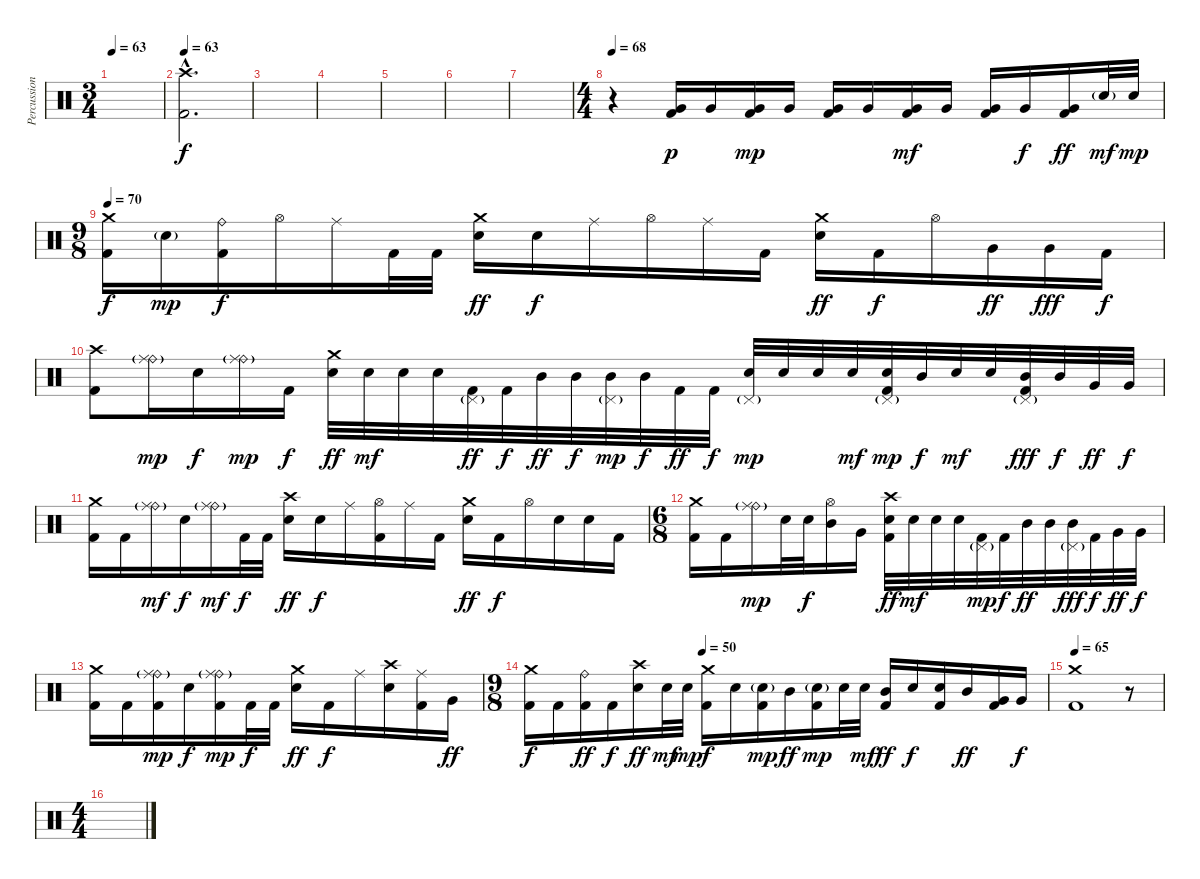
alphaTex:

\track ("Percussion" "Percussion") {instrument percussion}
\staff {score}
\articulation defaults
\ts (3 4)
\tempo 63
\clef neutral
\ks c
|
\tempo 63
("Crash high (hit)"{hac} "Kick (hit) 2"{hac}).2{d} |
|
|
|
|
|
\ts (4 4)
\tempo 68
r.4 ("Very Low Tom (hit)" "Kick (hit) 2").16{dy p volume 14} "Very Low Tom (hit)".16 ("Very Low Tom (hit)" "Kick (hit) 2").16{dy mp} "Very Low Tom (hit)".16 ("Very Low Tom (hit)" "Kick (hit) 2").16 "Very Low Tom (hit)".16 ("Very Low Tom (hit)" "Kick (hit) 2").16{dy mf} "Very Low Tom (hit)".16 ("Very Low Tom (hit)" "Kick (hit) 2").16 "Very Low Tom (hit)".16{dy f} ("Very Low Tom (hit)" "Kick (hit) 2").16{dy ff} "Electric Snare (hit)"{g}.32{dy mf} "Electric Snare (hit)".32{dy mp} |
\ts (9 8)
\tempo 70
("Crash medium (hit)" "Kick (hit) 2").16{dy f volume 14} "Electric Snare (hit)"{g}.16{dy mp} ("Ride (bell)" "Kick (hit) 2").16{dy f} "Hi-Hat (open)".16 "Ride (middle)".16 "Kick (hit) 2".32 "Kick (hit) 2".32 ("Crash medium (hit)" "Electric Snare (hit)").16{dy ff} "Electric Snare (hit)".16{dy f} "Ride (middle)".16 "Hi-Hat (open)".16 "Ride (middle)".16 "Kick (hit) 2".16 ("Crash medium (hit)" "Electric Snare (hit)").16{dy ff} "Kick (hit) 2".16{dy f} "Hi-Hat (open)".16 "Very Low Tom (hit)".16{dy ff} "Very Low Tom (hit)".16{dy fff} "Kick (hit) 2".16{dy f} |
("Crash high (hit)" "Kick (hit) 2").8{volume 14} ("Ride (bell)"{g} "Ride (middle)").16{dy mp} "Electric Snare (hit)".16{dy f} ("Ride (bell)"{g} "Ride (middle)").16{dy mp} "Kick (hit) 2".16{dy f} ("Crash medium (hit)" "Electric Snare (hit)").32{dy ff} "Electric Snare (hit)".32{dy mf} "Electric Snare (hit)".32 "Electric Snare (hit)".32 ("Pedal Hi-Hat (hit)"{g} "Kick (hit) 2").32{dy ff} "Kick (hit) 2".32{dy f} "Mid Tom (hit)".32{dy ff} "Mid Tom (hit)".32{dy f} ("Pedal Hi-Hat (hit)"{g} "Mid Tom (hit)").32{dy mp} "Mid Tom (hit)".32{dy f} "Kick (hit) 2".32{dy ff} "Kick (hit) 2".32{dy f} ("Pedal Hi-Hat (hit)"{g} "Electric Snare (hit)").32{dy mp} "Electric Snare (hit)".32 "Electric Snare (hit)".32 "Electric Snare (hit)".32{dy mf} ("Pedal Hi-Hat (hit)"{g} "Electric Snare (hit)" "Kick (hit) 2").32{dy mp} "Mid Tom (hit)".32{dy f} "Electric Snare (hit)".32{dy mf} "Electric Snare (hit)".32 ("Pedal Hi-Hat (hit)"{g} "Mid Tom (hit)" "Kick (hit) 2").32{dy fff} "Mid Tom (hit)".32{dy f} "Very Low Tom (hit)".32{dy ff} "Very Low Tom (hit)".32{dy f} |
("Crash medium (hit)" "Kick (hit) 2").16{volume 14} "Kick (hit) 2".16 ("Ride (bell)"{g} "Ride (middle)").16{dy mf} "Electric Snare (hit)".16{dy f} ("Ride (bell)"{g} "Ride (middle)").16{dy mf} "Kick (hit) 2".32{dy f} "Kick (hit) 2".32 ("Crash high (hit)" "Electric Snare (hit)").16{dy ff} "Electric Snare (hit)".16{dy f} "Ride (middle)".16 ("Hi-Hat (open)" "Kick (hit) 2").16 "Ride (middle)".16 "Kick (hit) 2".16 ("Crash medium (hit)" "Electric Snare (hit)").16{dy ff} "Kick (hit) 2".16{dy f} "Hi-Hat (open)".16 "Electric Snare (hit)".16 "Electric Snare (hit)".16 "Kick (hit) 2".16 |
\ts (6 8)
("Crash medium (hit)" "Kick (hit) 2").16{volume 14} "Kick (hit) 2".16 ("Ride (bell)"{g} "Ride (middle)").16{dy mp} "Electric Snare (hit)".32 "Electric Snare (hit)".32{dy f} ("Hi-Hat (open)" "Mid Tom (hit)").16 "Very Low Tom (hit)".16 ("Crash high (hit)" "Electric Snare (hit)" "Kick (hit) 2").32{dy ff} "Electric Snare (hit)".32{dy mf} "Electric Snare (hit)".32 "Electric Snare (hit)".32 ("Pedal Hi-Hat (hit)"{g} "Kick (hit) 2").32{dy mp} "Kick (hit) 2".32{dy f} "Mid Tom (hit)".32{dy ff} "Mid Tom (hit)".32 ("Pedal Hi-Hat (hit)"{g} "Mid Tom (hit)").32{dy fff} "Kick (hit) 2".32{dy f} "Very Low Tom (hit)".32{dy ff} "Very Low Tom (hit)".32{dy f} |
("Crash medium (hit)" "Kick (hit) 2").16{volume 14} "Kick (hit) 2".16 ("Ride (bell)"{g} "Ride (middle)" "Kick (hit) 2").16{dy mp} "Electric Snare (hit)".16{dy f} ("Ride (bell)"{g} "Ride (middle)" "Kick (hit) 2").16{dy mp} "Kick (hit) 2".32{dy f} "Kick (hit) 2".32 ("Crash medium (hit)" "Electric Snare (hit)").16{dy ff} "Kick (hit) 2".16{dy f} "Ride (middle)".16 ("Crash high (hit)" "Electric Snare (hit)").16 ("Ride (middle)" "Kick (hit) 2").16 "Very Low Tom (hit)".16{dy ff} |
\ts (9 8)
\tempo (50 0.3333333333333333)
("Crash medium (hit)" "Kick (hit) 2").16{dy f volume 14} "Kick (hit) 2".16 ("Ride (bell)" "Kick (hit) 2").16{dy ff} "Kick (hit) 2".16{dy f} ("Crash high (hit)" "Electric Snare (hit)").16{dy ff} "Electric Snare (hit)".32{dy mf} "Electric Snare (hit)".32{dy mp} ("Crash medium (hit)" "Kick (hit) 2").16{dy f} "Electric Snare (hit)".16 ("Electric Snare (hit)"{g} "Kick (hit) 2").16{dy mp} "Mid Tom (hit)".16{dy ff} ("Electric Snare (hit)"{g} "Kick (hit) 2").16{dy mp} "Electric Snare (hit)".32 "Electric Snare (hit)".32{dy mf} ("Mid Tom (hit)" "Kick (hit) 2").16{dy ff} "Electric Snare (hit)".16{dy f} ("Electric Snare (hit)" "Kick (hit) 2").16 "Mid Tom (hit)".16{dy ff} ("Very Low Tom (hit)" "Kick (hit) 2").16 "Very Low Tom (hit)".16{dy f} |
\tempo 65
("Crash medium (hit)" "Kick (hit) 2").1 r.8 |
\ts (4 4)
